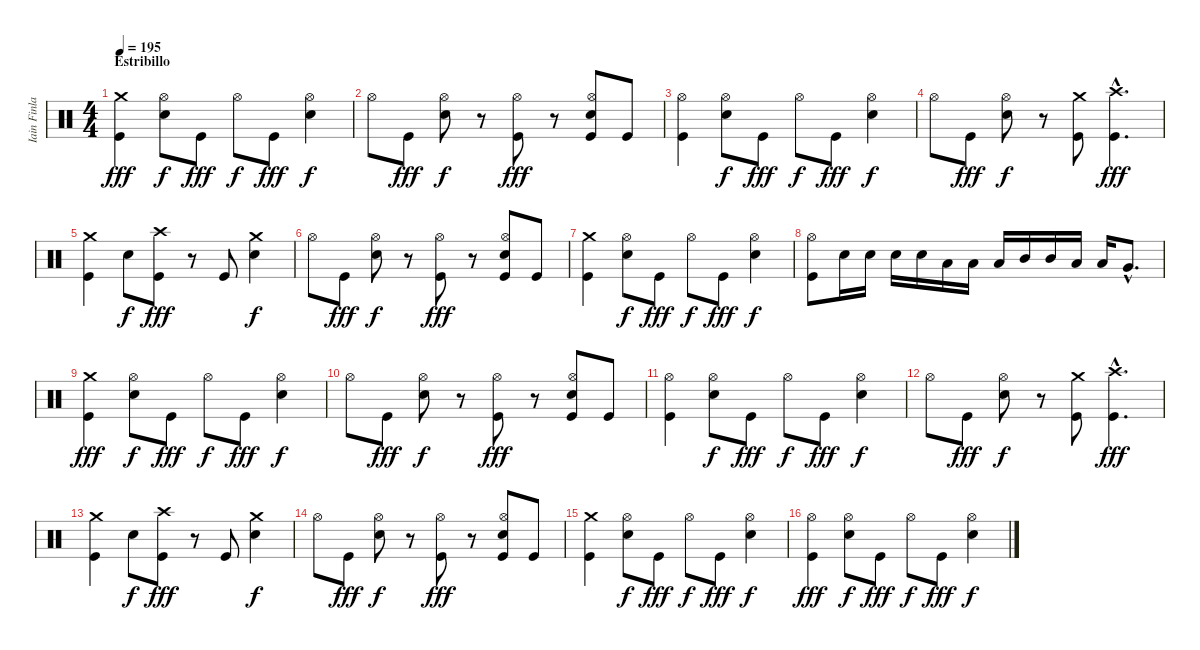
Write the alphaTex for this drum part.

\track ("Iain Finlay (Batería)" "Iain Finla") {instrument percussion}
\staff {score}
\articulation defaults
\ts (4 4)
\section ("" "Estribillo")
\tempo 195
\clef neutral
\ks c
("Crash medium (hit)" "Kick (hit)").4{dy fff} ("Hi-Hat (open)" "Electric Snare (hit)").8{dy f} "Kick (hit)".8{dy fff} "Hi-Hat (open)".8{dy f} "Kick (hit)".8{dy fff} ("Hi-Hat (open)" "Electric Snare (hit)").4{dy f} |
"Hi-Hat (open)".8 "Kick (hit)".8{dy fff} ("Hi-Hat (open)" "Electric Snare (hit)").8{dy f} r.8 ("Hi-Hat (open)" "Kick (hit)").8{dy fff} r.8 ("Hi-Hat (open)" "Electric Snare (hit)" "Kick (hit)").8 "Kick (hit)".8 |
("Hi-Hat (open)" "Kick (hit)").4 ("Hi-Hat (open)" "Electric Snare (hit)").8{dy f} "Kick (hit)".8{dy fff} "Hi-Hat (open)".8{dy f} "Kick (hit)".8{dy fff} ("Hi-Hat (open)" "Electric Snare (hit)").4{dy f} |
"Hi-Hat (open)".8 "Kick (hit)".8{dy fff} ("Hi-Hat (open)" "Electric Snare (hit)").8{dy f} r.8 ("Crash medium (hit)" "Kick (hit)").8 ("Crash high (hit)"{hac} "Kick (hit)"{hac}).4{d dy fff} |
("Crash medium (hit)" "Kick (hit)").4 "Electric Snare (hit)".8{dy f} ("Crash high (hit)" "Kick (hit)").8{dy fff} r.8 "Kick (hit)".8 ("Crash medium (hit)" "Electric Snare (hit)").4{dy f} |
"Hi-Hat (open)".8 "Kick (hit)".8{dy fff} ("Hi-Hat (open)" "Electric Snare (hit)").8{dy f} r.8 ("Hi-Hat (open)" "Kick (hit)").8{dy fff} r.8 ("Hi-Hat (open)" "Electric Snare (hit)" "Kick (hit)").8 "Kick (hit)".8 |
("Crash medium (hit)" "Kick (hit)").4 ("Hi-Hat (open)" "Electric Snare (hit)").8{dy f} "Kick (hit)".8{dy fff} "Hi-Hat (open)".8{dy f} "Kick (hit)".8{dy fff} ("Hi-Hat (open)" "Electric Snare (hit)").4{dy f} |
("Hi-Hat (open)" "Kick (hit)").8 "Electric Snare (hit)".16 "Electric Snare (hit)".16 "Electric Snare (hit)".16 "Electric Snare (hit)".16 "Low Tom (hit)".16 "Low Tom (hit)".16 "Low Tom (hit)".16 "Mid Tom (hit)".16 "Mid Tom (hit)".16 "Low Tom (hit)".16 "Low Tom (hit)".16 "Very Low Tom (hit)"{hac}.8{d} |
("Crash medium (hit)" "Kick (hit)").4{dy fff} ("Hi-Hat (open)" "Electric Snare (hit)").8{dy f} "Kick (hit)".8{dy fff} "Hi-Hat (open)".8{dy f} "Kick (hit)".8{dy fff} ("Hi-Hat (open)" "Electric Snare (hit)").4{dy f} |
"Hi-Hat (open)".8 "Kick (hit)".8{dy fff} ("Hi-Hat (open)" "Electric Snare (hit)").8{dy f} r.8 ("Hi-Hat (open)" "Kick (hit)").8{dy fff} r.8 ("Hi-Hat (open)" "Electric Snare (hit)" "Kick (hit)").8 "Kick (hit)".8 |
("Hi-Hat (open)" "Kick (hit)").4 ("Hi-Hat (open)" "Electric Snare (hit)").8{dy f} "Kick (hit)".8{dy fff} "Hi-Hat (open)".8{dy f} "Kick (hit)".8{dy fff} ("Hi-Hat (open)" "Electric Snare (hit)").4{dy f} |
"Hi-Hat (open)".8 "Kick (hit)".8{dy fff} ("Hi-Hat (open)" "Electric Snare (hit)").8{dy f} r.8 ("Crash medium (hit)" "Kick (hit)").8 ("Crash high (hit)"{hac} "Kick (hit)"{hac}).4{d dy fff} |
("Crash medium (hit)" "Kick (hit)").4 "Electric Snare (hit)".8{dy f} ("Crash high (hit)" "Kick (hit)").8{dy fff} r.8 "Kick (hit)".8 ("Crash medium (hit)" "Electric Snare (hit)").4{dy f} |
"Hi-Hat (open)".8 "Kick (hit)".8{dy fff} ("Hi-Hat (open)" "Electric Snare (hit)").8{dy f} r.8 ("Hi-Hat (open)" "Kick (hit)").8{dy fff} r.8 ("Hi-Hat (open)" "Electric Snare (hit)" "Kick (hit)").8 "Kick (hit)".8 |
("Crash medium (hit)" "Kick (hit)").4 ("Hi-Hat (open)" "Electric Snare (hit)").8{dy f} "Kick (hit)".8{dy fff} "Hi-Hat (open)".8{dy f} "Kick (hit)".8{dy fff} ("Hi-Hat (open)" "Electric Snare (hit)").4{dy f} |
("Hi-Hat (open)" "Kick (hit)").4{dy fff} ("Hi-Hat (open)" "Electric Snare (hit)").8{dy f} "Kick (hit)".8{dy fff} "Hi-Hat (open)".8{dy f} "Kick (hit)".8{dy fff} ("Hi-Hat (open)" "Electric Snare (hit)").4{dy f}
